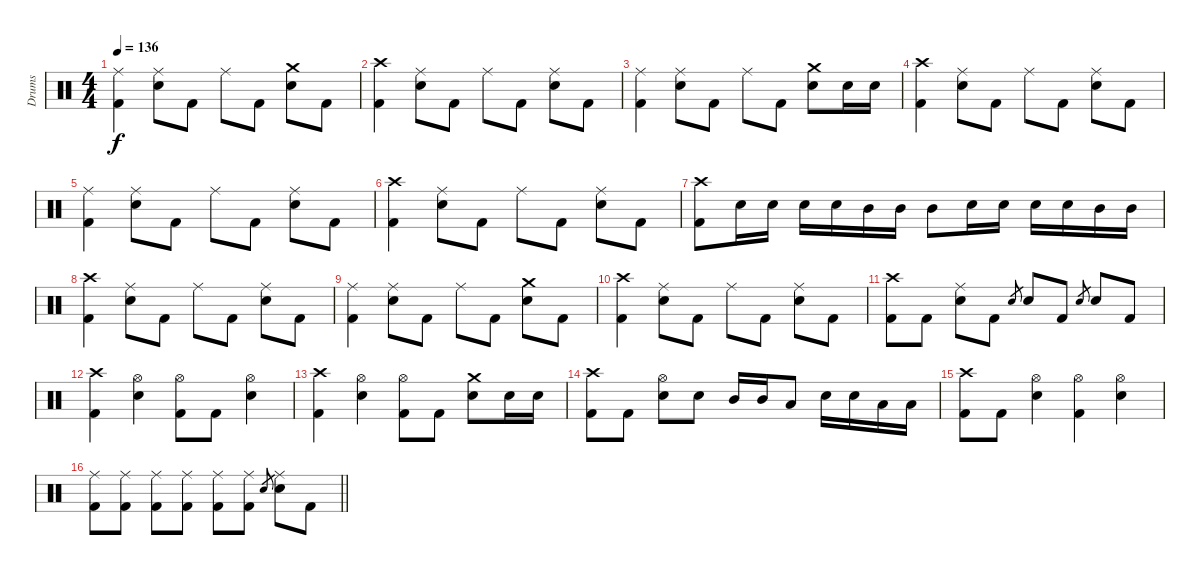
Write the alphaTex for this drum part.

\track ("Drums" "Drums") {instrument percussion}
\staff {score}
\articulation defaults
\ts (4 4)
\tempo 136
\clef neutral
\ks c
("Ride (middle)" "Kick (hit) 2").4{dy f} ("Ride (middle)" "Electric Snare (hit)").8 "Kick (hit) 2".8 "Ride (middle)".8 "Kick (hit) 2".8 ("Crash medium (hit)" "Electric Snare (hit)").8 "Kick (hit) 2".8 |
("Crash high (hit)" "Kick (hit) 2").4 ("Ride (middle)" "Electric Snare (hit)").8 "Kick (hit) 2".8 "Ride (middle)".8 "Kick (hit) 2".8 ("Ride (middle)" "Electric Snare (hit)").8 "Kick (hit) 2".8 |
("Ride (middle)" "Kick (hit) 2").4 ("Ride (middle)" "Electric Snare (hit)").8 "Kick (hit) 2".8 "Ride (middle)".8 "Kick (hit) 2".8 ("Crash medium (hit)" "Electric Snare (hit)").8 "Electric Snare (hit)".16 "Electric Snare (hit)".16 |
("Crash high (hit)" "Kick (hit) 2").4 ("Ride (middle)" "Electric Snare (hit)").8 "Kick (hit) 2".8 "Ride (middle)".8 "Kick (hit) 2".8 ("Ride (middle)" "Electric Snare (hit)").8 "Kick (hit) 2".8 |
("Ride (middle)" "Kick (hit) 2").4 ("Ride (middle)" "Electric Snare (hit)").8 "Kick (hit) 2".8 "Ride (middle)".8 "Kick (hit) 2".8 ("Ride (middle)" "Electric Snare (hit)").8 "Kick (hit) 2".8 |
("Crash high (hit)" "Kick (hit) 2").4 ("Ride (middle)" "Electric Snare (hit)").8 "Kick (hit) 2".8 "Ride (middle)".8 "Kick (hit) 2".8 ("Ride (middle)" "Electric Snare (hit)").8 "Kick (hit) 2".8 |
("Crash high (hit)" "Kick (hit) 2").8 "Electric Snare (hit)".16 "Electric Snare (hit)".16 "Electric Snare (hit)".16 "Electric Snare (hit)".16 "Mid Tom (hit)".16 "Mid Tom (hit)".16 "Mid Tom (hit)".8 "Electric Snare (hit)".16 "Electric Snare (hit)".16 "Electric Snare (hit)".16 "Electric Snare (hit)".16 "Mid Tom (hit)".16 "Mid Tom (hit)".16 |
("Crash high (hit)" "Kick (hit) 2").4 ("Ride (middle)" "Electric Snare (hit)").8 "Kick (hit) 2".8 "Ride (middle)".8 "Kick (hit) 2".8 ("Ride (middle)" "Electric Snare (hit)").8 "Kick (hit) 2".8 |
("Ride (middle)" "Kick (hit) 2").4 ("Ride (middle)" "Electric Snare (hit)").8 "Kick (hit) 2".8 "Ride (middle)".8 "Kick (hit) 2".8 ("Crash medium (hit)" "Electric Snare (hit)").8 "Kick (hit) 2".8 |
("Crash high (hit)" "Kick (hit) 2").4 ("Ride (middle)" "Electric Snare (hit)").8 "Kick (hit) 2".8 "Ride (middle)".8 "Kick (hit) 2".8 ("Ride (middle)" "Electric Snare (hit)").8 "Kick (hit) 2".8 |
("Crash high (hit)" "Kick (hit) 2").8 "Kick (hit) 2".8 ("Ride (middle)" "Electric Snare (hit)").8 "Kick (hit) 2".8 "Electric Snare (hit)".8{gr} "Electric Snare (hit)".8 "Kick (hit) 2".8 "Electric Snare (hit)".8{gr} "Electric Snare (hit)".8 "Kick (hit) 2".8 |
("Crash high (hit)" "Kick (hit) 2").4 ("Hi-Hat (open)" "Electric Snare (hit)").4 ("Hi-Hat (open)" "Kick (hit) 2").8 "Kick (hit) 2".8 ("Hi-Hat (open)" "Electric Snare (hit)").4 |
("Crash high (hit)" "Kick (hit) 2").4 ("Hi-Hat (open)" "Electric Snare (hit)").4 ("Hi-Hat (open)" "Kick (hit) 2").8 "Kick (hit) 2".8 ("Crash medium (hit)" "Electric Snare (hit)").8 "Electric Snare (hit)".16 "Electric Snare (hit)".16 |
("Crash high (hit)" "Kick (hit) 2").8 "Kick (hit) 2".8 ("Hi-Hat (open)" "Electric Snare (hit)").8 "Electric Snare (hit)".8 "Mid Tom (hit)".16 "Mid Tom (hit)".16 "Low Tom (hit)".8 "Electric Snare (hit)".16 "Electric Snare (hit)".16 "Low Tom (hit)".16 "Low Tom (hit)".16 |
("Crash high (hit)" "Kick (hit) 2").8 "Kick (hit) 2".8 ("Hi-Hat (open)" "Electric Snare (hit)").4 ("Hi-Hat (open)" "Kick (hit) 2").4 ("Hi-Hat (open)" "Electric Snare (hit)").4 |
\barLineRight lightlight
("Ride (middle)" "Kick (hit) 2").8 ("Ride (middle)" "Kick (hit) 2").8 ("Ride (middle)" "Kick (hit) 2").8 ("Ride (middle)" "Kick (hit) 2").8 ("Ride (middle)" "Kick (hit) 2").8 ("Ride (middle)" "Kick (hit) 2").8 "Electric Snare (hit)".8{gr} ("Ride (middle)" "Electric Snare (hit)").8 "Kick (hit) 2".8
